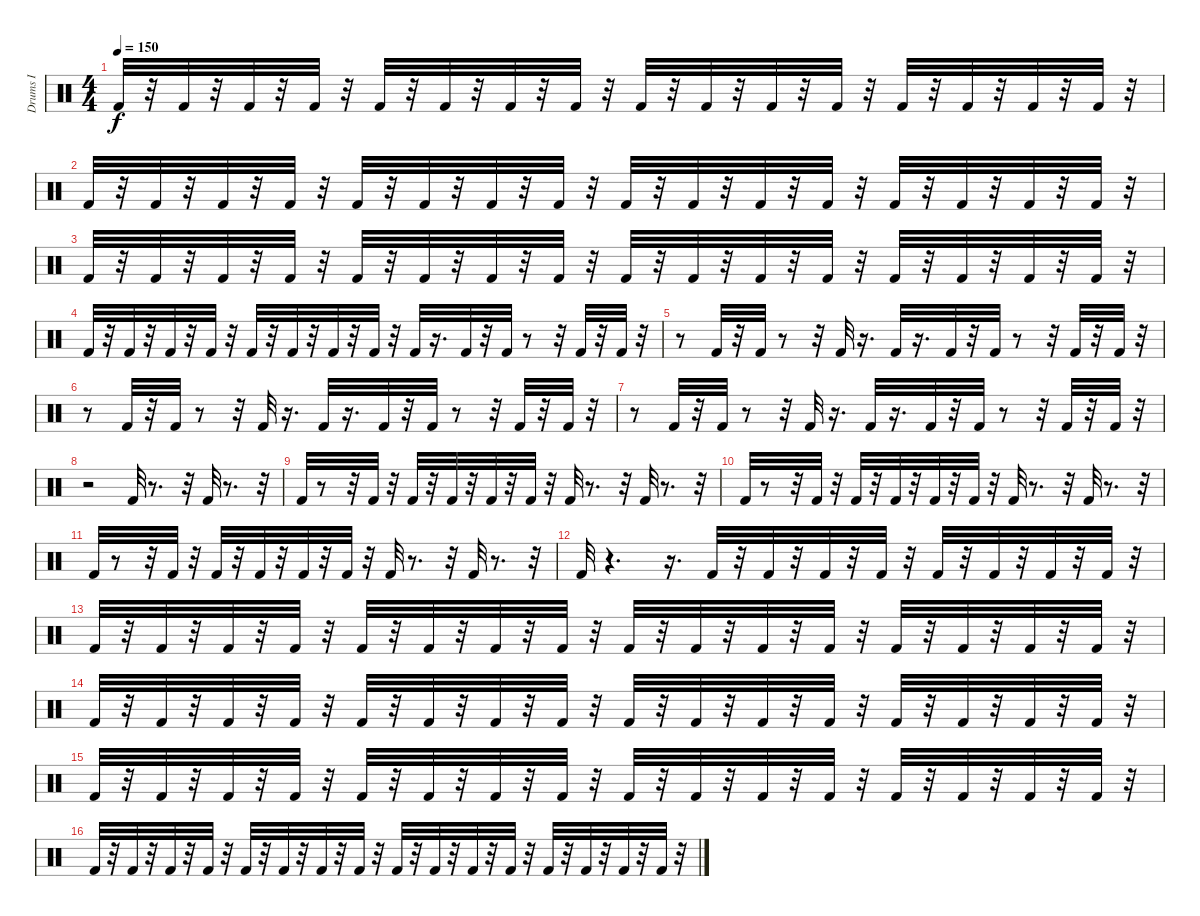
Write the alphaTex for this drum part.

\track ("Drums I" "Drums I") {instrument percussion}
\staff {score}
\articulation defaults
\ts (4 4)
\tempo 150
\clef neutral
\ks c "Kick (hit) 2".32{dy f}
r.32 "Kick (hit) 2".32 r.32 "Kick (hit) 2".32 r.32 "Kick (hit) 2".32 r.32 "Kick (hit) 2".32 r.32 "Kick (hit) 2".32 r.32 "Kick (hit) 2".32 r.32 "Kick (hit) 2".32 r.32 "Kick (hit) 2".32 r.32 "Kick (hit) 2".32 r.32 "Kick (hit) 2".32 r.32 "Kick (hit) 2".32 r.32 "Kick (hit) 2".32 r.32 "Kick (hit) 2".32 r.32 "Kick (hit) 2".32 r.32 "Kick (hit) 2".32 r.32 |
"Kick (hit) 2".32 r.32 "Kick (hit) 2".32 r.32 "Kick (hit) 2".32 r.32 "Kick (hit) 2".32 r.32 "Kick (hit) 2".32 r.32 "Kick (hit) 2".32 r.32 "Kick (hit) 2".32 r.32 "Kick (hit) 2".32 r.32 "Kick (hit) 2".32 r.32 "Kick (hit) 2".32 r.32 "Kick (hit) 2".32 r.32 "Kick (hit) 2".32 r.32 "Kick (hit) 2".32 r.32 "Kick (hit) 2".32 r.32 "Kick (hit) 2".32 r.32 "Kick (hit) 2".32 r.32 |
"Kick (hit) 2".32 r.32 "Kick (hit) 2".32 r.32 "Kick (hit) 2".32 r.32 "Kick (hit) 2".32 r.32 "Kick (hit) 2".32 r.32 "Kick (hit) 2".32 r.32 "Kick (hit) 2".32 r.32 "Kick (hit) 2".32 r.32 "Kick (hit) 2".32 r.32 "Kick (hit) 2".32 r.32 "Kick (hit) 2".32 r.32 "Kick (hit) 2".32 r.32 "Kick (hit) 2".32 r.32 "Kick (hit) 2".32 r.32 "Kick (hit) 2".32 r.32 "Kick (hit) 2".32 r.32 |
"Kick (hit) 2".32 r.32 "Kick (hit) 2".32 r.32 "Kick (hit) 2".32 r.32 "Kick (hit) 2".32 r.32 "Kick (hit) 2".32 r.32 "Kick (hit) 2".32 r.32 "Kick (hit) 2".32 r.32 "Kick (hit) 2".32 r.32 "Kick (hit) 2".32 r.16{d} "Kick (hit) 2".32 r.32 "Kick (hit) 2".32 r.8 r.32 "Kick (hit) 2".32 r.32 "Kick (hit) 2".32 r.32 |
r.8 "Kick (hit) 2".32 r.32 "Kick (hit) 2".32 r.8 r.32 "Kick (hit) 2".32 r.16{d} "Kick (hit) 2".32 r.16{d} "Kick (hit) 2".32 r.32 "Kick (hit) 2".32 r.8 r.32 "Kick (hit) 2".32 r.32 "Kick (hit) 2".32 r.32 |
r.8 "Kick (hit) 2".32 r.32 "Kick (hit) 2".32 r.8 r.32 "Kick (hit) 2".32 r.16{d} "Kick (hit) 2".32 r.16{d} "Kick (hit) 2".32 r.32 "Kick (hit) 2".32 r.8 r.32 "Kick (hit) 2".32 r.32 "Kick (hit) 2".32 r.32 |
r.8 "Kick (hit) 2".32 r.32 "Kick (hit) 2".32 r.8 r.32 "Kick (hit) 2".32 r.16{d} "Kick (hit) 2".32 r.16{d} "Kick (hit) 2".32 r.32 "Kick (hit) 2".32 r.8 r.32 "Kick (hit) 2".32 r.32 "Kick (hit) 2".32 r.32 |
r.2 "Kick (hit) 2".32 r.8{d} r.32 "Kick (hit) 2".32 r.8{d} r.32 |
"Kick (hit) 2".32 r.8 r.32 "Kick (hit) 2".32 r.32 "Kick (hit) 2".32 r.32 "Kick (hit) 2".32 r.32 "Kick (hit) 2".32 r.32 "Kick (hit) 2".32 r.32 "Kick (hit) 2".32 r.8{d} r.32 "Kick (hit) 2".32 r.8{d} r.32 |
"Kick (hit) 2".32 r.8 r.32 "Kick (hit) 2".32 r.32 "Kick (hit) 2".32 r.32 "Kick (hit) 2".32 r.32 "Kick (hit) 2".32 r.32 "Kick (hit) 2".32 r.32 "Kick (hit) 2".32 r.8{d} r.32 "Kick (hit) 2".32 r.8{d} r.32 |
"Kick (hit) 2".32 r.8 r.32 "Kick (hit) 2".32 r.32 "Kick (hit) 2".32 r.32 "Kick (hit) 2".32 r.32 "Kick (hit) 2".32 r.32 "Kick (hit) 2".32 r.32 "Kick (hit) 2".32 r.8{d} r.32 "Kick (hit) 2".32 r.8{d} r.32 |
"Kick (hit) 2".32 r.4{d} r.16{d} "Kick (hit) 2".32 r.32 "Kick (hit) 2".32 r.32 "Kick (hit) 2".32 r.32 "Kick (hit) 2".32 r.32 "Kick (hit) 2".32 r.32 "Kick (hit) 2".32 r.32 "Kick (hit) 2".32 r.32 "Kick (hit) 2".32 r.32 |
"Kick (hit) 2".32 r.32 "Kick (hit) 2".32 r.32 "Kick (hit) 2".32 r.32 "Kick (hit) 2".32 r.32 "Kick (hit) 2".32 r.32 "Kick (hit) 2".32 r.32 "Kick (hit) 2".32 r.32 "Kick (hit) 2".32 r.32 "Kick (hit) 2".32 r.32 "Kick (hit) 2".32{volume 15} r.32 "Kick (hit) 2".32{volume 15} r.32 "Kick (hit) 2".32{volume 14} r.32 "Kick (hit) 2".32{volume 14} r.32 "Kick (hit) 2".32{volume 14} r.32 "Kick (hit) 2".32{volume 14} r.32 "Kick (hit) 2".32{volume 14} r.32 |
"Kick (hit) 2".32{volume 14} r.32 "Kick (hit) 2".32{volume 13} r.32 "Kick (hit) 2".32{volume 13} r.32 "Kick (hit) 2".32{volume 13} r.32 "Kick (hit) 2".32{volume 13} r.32 "Kick (hit) 2".32{volume 13} r.32 "Kick (hit) 2".32{volume 12} r.32 "Kick (hit) 2".32{volume 12} r.32 "Kick (hit) 2".32{volume 12} r.32 "Kick (hit) 2".32{volume 12} r.32 "Kick (hit) 2".32{volume 12} r.32 "Kick (hit) 2".32{volume 12} r.32 "Kick (hit) 2".32{volume 11} r.32 "Kick (hit) 2".32{volume 11} r.32 "Kick (hit) 2".32{volume 11} r.32 "Kick (hit) 2".32{volume 11} r.32 |
"Kick (hit) 2".32{volume 11} r.32 "Kick (hit) 2".32{volume 10} r.32 "Kick (hit) 2".32{volume 10} r.32 "Kick (hit) 2".32{volume 10} r.32 "Kick (hit) 2".32{volume 10} r.32 "Kick (hit) 2".32{volume 10} r.32 "Kick (hit) 2".32{volume 9} r.32 "Kick (hit) 2".32{volume 9} r.32 "Kick (hit) 2".32{volume 9} r.32 "Kick (hit) 2".32{volume 9} r.32 "Kick (hit) 2".32{volume 9} r.32 "Kick (hit) 2".32{volume 8} r.32 "Kick (hit) 2".32{volume 8} r.32 "Kick (hit) 2".32{volume 8} r.32 "Kick (hit) 2".32{volume 8} r.32 "Kick (hit) 2".32{volume 8} r.32 |
"Kick (hit) 2".32{volume 8} r.32 "Kick (hit) 2".32{volume 7} r.32 "Kick (hit) 2".32{volume 7} r.32 "Kick (hit) 2".32{volume 7} r.32 "Kick (hit) 2".32{volume 7} r.32 "Kick (hit) 2".32{volume 7} r.32 "Kick (hit) 2".32{volume 6} r.32 "Kick (hit) 2".32{volume 6} r.32 "Kick (hit) 2".32{volume 6} r.32 "Kick (hit) 2".32{volume 6} r.32 "Kick (hit) 2".32{volume 6} r.32 "Kick (hit) 2".32{volume 6} r.32 "Kick (hit) 2".32{volume 5} r.32 "Kick (hit) 2".32{volume 5} r.32 "Kick (hit) 2".32{volume 5} r.32 "Kick (hit) 2".32{volume 5} r.32
